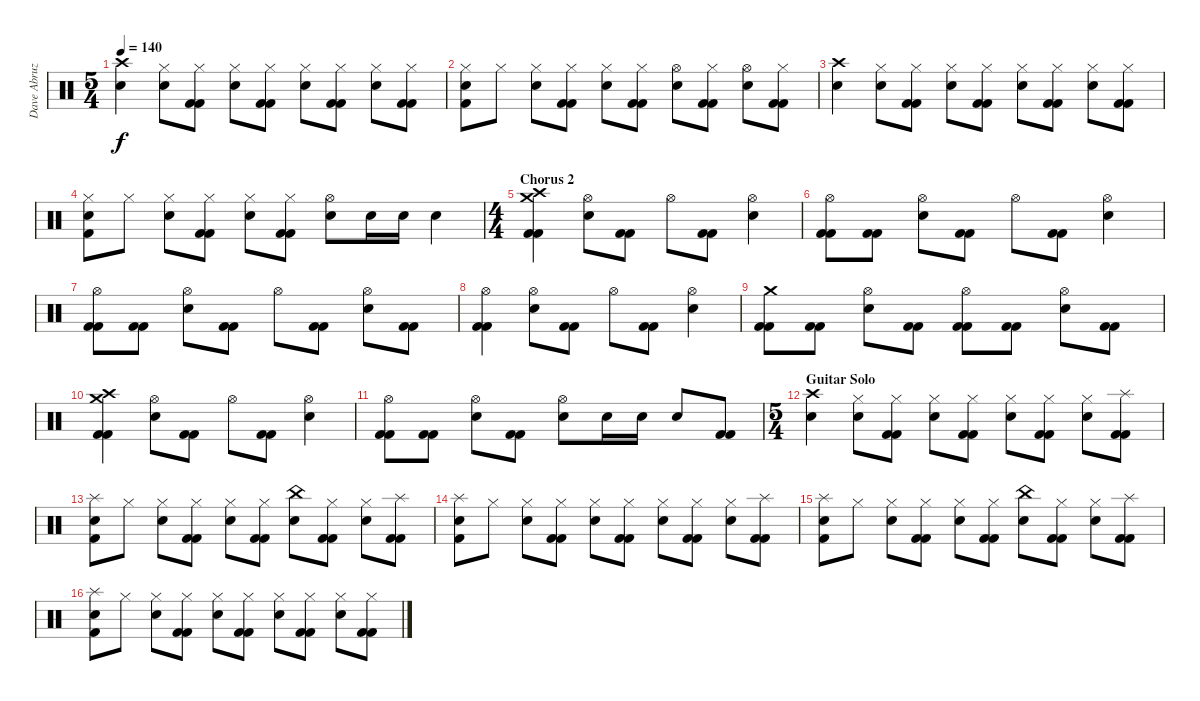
\track ("Dave Abruzzese" "Dave Abruz") {instrument percussion}
\staff {score}
\articulation defaults
\ts (5 4)
\tempo 140
\clef neutral
\ks c
("Electric Snare (hit)" "Crash high (hit)").4{dy f} ("Electric Snare (hit)" "Hi-Hat (closed)").8 ("Kick (hit) 2" "Kick (hit) 2" "Hi-Hat (closed)").8 ("Electric Snare (hit)" "Hi-Hat (closed)").8 ("Kick (hit) 2" "Kick (hit) 2" "Hi-Hat (closed)").8 ("Electric Snare (hit)" "Hi-Hat (closed)").8 ("Kick (hit) 2" "Kick (hit) 2" "Hi-Hat (closed)").8 ("Electric Snare (hit)" "Hi-Hat (closed)").8 ("Kick (hit) 2" "Kick (hit) 2" "Hi-Hat (closed)").8 |
("Kick (hit) 2" "Electric Snare (hit)" "Hi-Hat (closed)").8 "Hi-Hat (closed)".8 ("Electric Snare (hit)" "Hi-Hat (closed)").8 ("Kick (hit) 2" "Kick (hit) 2" "Hi-Hat (closed)").8 ("Electric Snare (hit)" "Hi-Hat (closed)").8 ("Kick (hit) 2" "Kick (hit) 2" "Hi-Hat (closed)").8 ("Electric Snare (hit)" "Hi-Hat (open)").8 ("Kick (hit) 2" "Kick (hit) 2" "Hi-Hat (closed)").8 ("Electric Snare (hit)" "Hi-Hat (open)").8 ("Kick (hit) 2" "Kick (hit) 2" "Hi-Hat (closed)").8 |
("Electric Snare (hit)" "Crash high (hit)").4 ("Electric Snare (hit)" "Hi-Hat (closed)").8 ("Kick (hit) 2" "Kick (hit) 2" "Hi-Hat (closed)").8 ("Electric Snare (hit)" "Hi-Hat (closed)").8 ("Kick (hit) 2" "Kick (hit) 2" "Hi-Hat (closed)").8 ("Electric Snare (hit)" "Hi-Hat (closed)").8 ("Kick (hit) 2" "Kick (hit) 2" "Hi-Hat (closed)").8 ("Electric Snare (hit)" "Hi-Hat (closed)").8 ("Kick (hit) 2" "Kick (hit) 2" "Hi-Hat (closed)").8 |
("Kick (hit) 2" "Electric Snare (hit)" "Hi-Hat (closed)").8 "Hi-Hat (closed)".8 ("Electric Snare (hit)" "Hi-Hat (closed)").8 ("Kick (hit) 2" "Kick (hit) 2" "Hi-Hat (closed)").8 ("Electric Snare (hit)" "Hi-Hat (closed)").8 ("Kick (hit) 2" "Kick (hit) 2" "Hi-Hat (closed)").8 ("Electric Snare (hit)" "Hi-Hat (open)").8 "Electric Snare (hit)".16 "Electric Snare (hit)".16 "Electric Snare (hit)".4 |
\ts (4 4)
\section ("" "Chorus 2")
("Crash medium (hit)" "Kick (hit) 2" "Kick (hit) 2" "Crash high (hit)").4 ("Electric Snare (hit)" "Hi-Hat (open)").8 ("Kick (hit) 2" "Kick (hit) 2").8 "Hi-Hat (open)".8 ("Kick (hit) 2" "Kick (hit) 2").8 ("Electric Snare (hit)" "Hi-Hat (open)").4 |
("Kick (hit) 2" "Kick (hit) 2" "Hi-Hat (open)").8 ("Kick (hit) 2" "Kick (hit) 2").8 ("Electric Snare (hit)" "Hi-Hat (open)").8 ("Kick (hit) 2" "Kick (hit) 2").8 "Hi-Hat (open)".8 ("Kick (hit) 2" "Kick (hit) 2").8 ("Electric Snare (hit)" "Hi-Hat (open)").4 |
("Kick (hit) 2" "Kick (hit) 2" "Hi-Hat (open)").8 ("Kick (hit) 2" "Kick (hit) 2").8 ("Electric Snare (hit)" "Hi-Hat (open)").8 ("Kick (hit) 2" "Kick (hit) 2").8 "Hi-Hat (open)".8 ("Kick (hit) 2" "Kick (hit) 2").8 ("Electric Snare (hit)" "Hi-Hat (open)").8 ("Kick (hit) 2" "Kick (hit) 2").8 |
("Kick (hit) 2" "Kick (hit) 2" "Hi-Hat (open)").4 ("Electric Snare (hit)" "Hi-Hat (open)").8 ("Kick (hit) 2" "Kick (hit) 2").8 "Hi-Hat (open)".8 ("Kick (hit) 2" "Kick (hit) 2").8 ("Electric Snare (hit)" "Hi-Hat (open)").4 |
("Kick (hit) 2" "Kick (hit) 2" "Crash medium (hit)").8 ("Kick (hit) 2" "Kick (hit) 2").8 ("Electric Snare (hit)" "Hi-Hat (open)").8 ("Kick (hit) 2" "Kick (hit) 2").8 ("Kick (hit) 2" "Kick (hit) 2" "Hi-Hat (open)").8 ("Kick (hit) 2" "Kick (hit) 2").8 ("Electric Snare (hit)" "Hi-Hat (open)").8 ("Kick (hit) 2" "Kick (hit) 2").8 |
("Crash medium (hit)" "Kick (hit) 2" "Kick (hit) 2" "Crash high (hit)").4 ("Electric Snare (hit)" "Hi-Hat (open)").8 ("Kick (hit) 2" "Kick (hit) 2").8 "Hi-Hat (open)".8 ("Kick (hit) 2" "Kick (hit) 2").8 ("Electric Snare (hit)" "Hi-Hat (open)").4 |
("Kick (hit) 2" "Kick (hit) 2" "Hi-Hat (open)").8 ("Kick (hit) 2" "Kick (hit) 2").8 ("Electric Snare (hit)" "Hi-Hat (open)").8 ("Kick (hit) 2" "Kick (hit) 2").8 ("Electric Snare (hit)" "Hi-Hat (open)").8 "Electric Snare (hit)".16 "Electric Snare (hit)".16 "Electric Snare (hit)".8 ("Kick (hit) 2" "Kick (hit) 2").8 |
\ts (5 4)
\section ("" "Guitar Solo")
("Electric Snare (hit)" "Crash high (hit)").4 ("Electric Snare (hit)" "Hi-Hat (closed)").8 ("Kick (hit) 2" "Kick (hit) 2" "Hi-Hat (closed)").8 ("Electric Snare (hit)" "Hi-Hat (closed)").8 ("Kick (hit) 2" "Kick (hit) 2" "Hi-Hat (closed)").8 ("Electric Snare (hit)" "Hi-Hat (closed)").8 ("Kick (hit) 2" "Kick (hit) 2" "Hi-Hat (closed)").8 ("Electric Snare (hit)" "Hi-Hat (closed)").8 ("Kick (hit) 2" "Kick (hit) 2" "Splash (hit)").8 |
("Kick (hit) 2" "Electric Snare (hit)" "Splash (hit)").8 "Hi-Hat (closed)".8 ("Electric Snare (hit)" "Hi-Hat (closed)").8 ("Kick (hit) 2" "Kick (hit) 2" "Hi-Hat (closed)").8 ("Electric Snare (hit)" "Hi-Hat (closed)").8 ("Kick (hit) 2" "Kick (hit) 2" "Hi-Hat (closed)").8 ("Electric Snare (hit)" "China (hit)").8 ("Kick (hit) 2" "Kick (hit) 2" "Hi-Hat (closed)").8 ("Electric Snare (hit)" "Hi-Hat (closed)").8 ("Kick (hit) 2" "Kick (hit) 2" "Splash (hit)").8 |
("Kick (hit) 2" "Electric Snare (hit)" "Splash (hit)").8 "Hi-Hat (closed)".8 ("Electric Snare (hit)" "Hi-Hat (closed)").8 ("Kick (hit) 2" "Kick (hit) 2" "Hi-Hat (closed)").8 ("Electric Snare (hit)" "Hi-Hat (closed)").8 ("Kick (hit) 2" "Kick (hit) 2" "Hi-Hat (closed)").8 ("Electric Snare (hit)" "Hi-Hat (closed)").8 ("Kick (hit) 2" "Kick (hit) 2" "Hi-Hat (closed)").8 ("Electric Snare (hit)" "Hi-Hat (closed)").8 ("Kick (hit) 2" "Kick (hit) 2" "Splash (hit)").8 |
("Kick (hit) 2" "Electric Snare (hit)" "Splash (hit)").8 "Hi-Hat (closed)".8 ("Electric Snare (hit)" "Hi-Hat (closed)").8 ("Kick (hit) 2" "Kick (hit) 2" "Hi-Hat (closed)").8 ("Electric Snare (hit)" "Hi-Hat (closed)").8 ("Kick (hit) 2" "Kick (hit) 2" "Hi-Hat (closed)").8 ("Electric Snare (hit)" "China (hit)").8 ("Kick (hit) 2" "Kick (hit) 2" "Hi-Hat (closed)").8 ("Electric Snare (hit)" "Hi-Hat (closed)").8 ("Kick (hit) 2" "Kick (hit) 2" "Splash (hit)").8 |
("Kick (hit) 2" "Electric Snare (hit)" "Splash (hit)").8 "Hi-Hat (closed)".8 ("Electric Snare (hit)" "Hi-Hat (closed)").8 ("Kick (hit) 2" "Kick (hit) 2" "Hi-Hat (closed)").8 ("Electric Snare (hit)" "Hi-Hat (closed)").8 ("Kick (hit) 2" "Kick (hit) 2" "Hi-Hat (closed)").8 ("Electric Snare (hit)" "Hi-Hat (closed)").8 ("Kick (hit) 2" "Kick (hit) 2" "Hi-Hat (closed)").8 ("Electric Snare (hit)" "Hi-Hat (closed)").8 ("Kick (hit) 2" "Kick (hit) 2" "Hi-Hat (closed)").8
